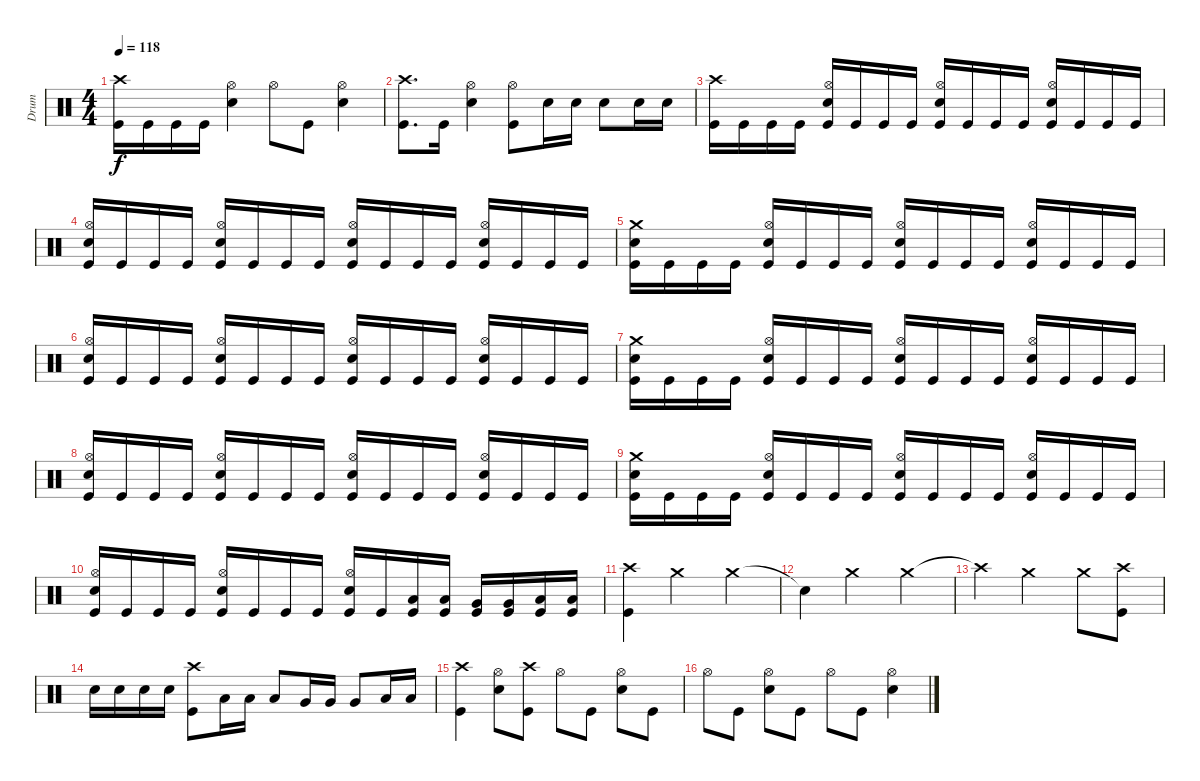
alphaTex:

\track ("Drum" "Drum") {instrument percussion}
\staff {score}
\articulation defaults
\ts (4 4)
\tempo 118
\clef neutral
\ks c
("Kick (hit)" "Crash high (hit)").16{dy f} "Kick (hit)".16 "Kick (hit)".16 "Kick (hit)".16 ("Hi-Hat (open)" "Snare (hit) 2").4 "Hi-Hat (open)".8 "Kick (hit)".8 ("Hi-Hat (open)" "Snare (hit) 2").4 |
("Kick (hit)" "Crash high (hit)").8{d} "Kick (hit)".16 ("Hi-Hat (open)" "Snare (hit) 2").4 ("Kick (hit)" "Hi-Hat (open)").8 "Snare (hit) 2".16 "Snare (hit) 2".16 "Snare (hit) 2".8 "Snare (hit) 2".16 "Snare (hit) 2".16 |
("Kick (hit)" "Crash high (hit)").16 "Kick (hit)".16 "Kick (hit)".16 "Kick (hit)".16 ("Kick (hit)" "Hi-Hat (open)" "Snare (hit) 2").16 "Kick (hit)".16 "Kick (hit)".16 "Kick (hit)".16 ("Kick (hit)" "Hi-Hat (open)" "Snare (hit) 2").16 "Kick (hit)".16 "Kick (hit)".16 "Kick (hit)".16 ("Kick (hit)" "Hi-Hat (open)" "Snare (hit) 2").16 "Kick (hit)".16 "Kick (hit)".16 "Kick (hit)".16 |
("Kick (hit)" "Hi-Hat (open)" "Snare (hit) 2").16 "Kick (hit)".16 "Kick (hit)".16 "Kick (hit)".16 ("Kick (hit)" "Hi-Hat (open)" "Snare (hit) 2").16 "Kick (hit)".16 "Kick (hit)".16 "Kick (hit)".16 ("Kick (hit)" "Hi-Hat (open)" "Snare (hit) 2").16 "Kick (hit)".16 "Kick (hit)".16 "Kick (hit)".16 ("Kick (hit)" "Hi-Hat (open)" "Snare (hit) 2").16 "Kick (hit)".16 "Kick (hit)".16 "Kick (hit)".16 |
("Kick (hit)" "Crash medium (hit)" "Snare (hit) 2").16 "Kick (hit)".16 "Kick (hit)".16 "Kick (hit)".16 ("Kick (hit)" "Hi-Hat (open)" "Snare (hit) 2").16 "Kick (hit)".16 "Kick (hit)".16 "Kick (hit)".16 ("Kick (hit)" "Hi-Hat (open)" "Snare (hit) 2").16 "Kick (hit)".16 "Kick (hit)".16 "Kick (hit)".16 ("Kick (hit)" "Hi-Hat (open)" "Snare (hit) 2").16 "Kick (hit)".16 "Kick (hit)".16 "Kick (hit)".16 |
("Kick (hit)" "Hi-Hat (open)" "Snare (hit) 2").16 "Kick (hit)".16 "Kick (hit)".16 "Kick (hit)".16 ("Kick (hit)" "Hi-Hat (open)" "Snare (hit) 2").16 "Kick (hit)".16 "Kick (hit)".16 "Kick (hit)".16 ("Kick (hit)" "Hi-Hat (open)" "Snare (hit) 2").16 "Kick (hit)".16 "Kick (hit)".16 "Kick (hit)".16 ("Kick (hit)" "Hi-Hat (open)" "Snare (hit) 2").16 "Kick (hit)".16 "Kick (hit)".16 "Kick (hit)".16 |
("Kick (hit)" "Crash medium (hit)" "Snare (hit) 2").16 "Kick (hit)".16 "Kick (hit)".16 "Kick (hit)".16 ("Kick (hit)" "Hi-Hat (open)" "Snare (hit) 2").16 "Kick (hit)".16 "Kick (hit)".16 "Kick (hit)".16 ("Kick (hit)" "Hi-Hat (open)" "Snare (hit) 2").16 "Kick (hit)".16 "Kick (hit)".16 "Kick (hit)".16 ("Kick (hit)" "Hi-Hat (open)" "Snare (hit) 2").16 "Kick (hit)".16 "Kick (hit)".16 "Kick (hit)".16 |
("Kick (hit)" "Hi-Hat (open)" "Snare (hit) 2").16 "Kick (hit)".16 "Kick (hit)".16 "Kick (hit)".16 ("Kick (hit)" "Hi-Hat (open)" "Snare (hit) 2").16 "Kick (hit)".16 "Kick (hit)".16 "Kick (hit)".16 ("Kick (hit)" "Hi-Hat (open)" "Snare (hit) 2").16 "Kick (hit)".16 "Kick (hit)".16 "Kick (hit)".16 ("Kick (hit)" "Hi-Hat (open)" "Snare (hit) 2").16 "Kick (hit)".16 "Kick (hit)".16 "Kick (hit)".16 |
("Kick (hit)" "Crash medium (hit)" "Snare (hit) 2").16 "Kick (hit)".16 "Kick (hit)".16 "Kick (hit)".16 ("Kick (hit)" "Hi-Hat (open)" "Snare (hit) 2").16 "Kick (hit)".16 "Kick (hit)".16 "Kick (hit)".16 ("Kick (hit)" "Hi-Hat (open)" "Snare (hit) 2").16 "Kick (hit)".16 "Kick (hit)".16 "Kick (hit)".16 ("Kick (hit)" "Hi-Hat (open)" "Snare (hit) 2").16 "Kick (hit)".16 "Kick (hit)".16 "Kick (hit)".16 |
("Kick (hit)" "Hi-Hat (open)" "Snare (hit) 2").16 "Kick (hit)".16 "Kick (hit)".16 "Kick (hit)".16 ("Kick (hit)" "Hi-Hat (open)" "Snare (hit) 2").16 "Kick (hit)".16 "Kick (hit)".16 "Kick (hit)".16 ("Kick (hit)" "Hi-Hat (open)" "Snare (hit) 2").16 "Kick (hit)".16 ("Kick (hit)" "Low Tom (hit)").16 ("Kick (hit)" "Low Tom (hit)").16 ("Kick (hit)" "Very Low Tom (hit)").16 ("Kick (hit)" "Very Low Tom (hit)").16 ("Kick (hit)" "Low Floor Tom (hit)").16 ("Kick (hit)" "Low Floor Tom (hit)").16 |
("Kick (hit)" "Crash high (hit)").4 "Crash medium (hit)".2 "Crash medium (hit)".4 |
"Snare (hit)"{t}.4 "Crash medium (hit)".2 "Crash medium (hit)".4 |
"Crash high (hit)"{t}.4 "Crash medium (hit)".2 "Crash medium (hit)".8 ("Kick (hit)" "Crash high (hit)").8 |
"Snare (hit) 2".16 "Snare (hit) 2".16 "Snare (hit) 2".16 "Snare (hit) 2".16 ("Kick (hit)" "Crash high (hit)").8 "Low Tom (hit)".16 "Low Tom (hit)".16 "Low Tom (hit)".8 "Very Low Tom (hit)".16 "Very Low Tom (hit)".16 "Very Low Tom (hit)".8 "Low Floor Tom (hit)".16 "Low Floor Tom (hit)".16 |
("Kick (hit)" "Crash high (hit)").4 ("Hi-Hat (open)" "Snare (hit) 2").8 ("Kick (hit)" "Crash high (hit)").8 "Hi-Hat (open)".8 "Kick (hit)".8 ("Hi-Hat (open)" "Snare (hit) 2").8 "Kick (hit)".8 |
"Hi-Hat (open)".8 "Kick (hit)".8 ("Hi-Hat (open)" "Snare (hit) 2").8 "Kick (hit)".8 "Hi-Hat (open)".8 "Kick (hit)".8 ("Hi-Hat (open)" "Snare (hit) 2").4
